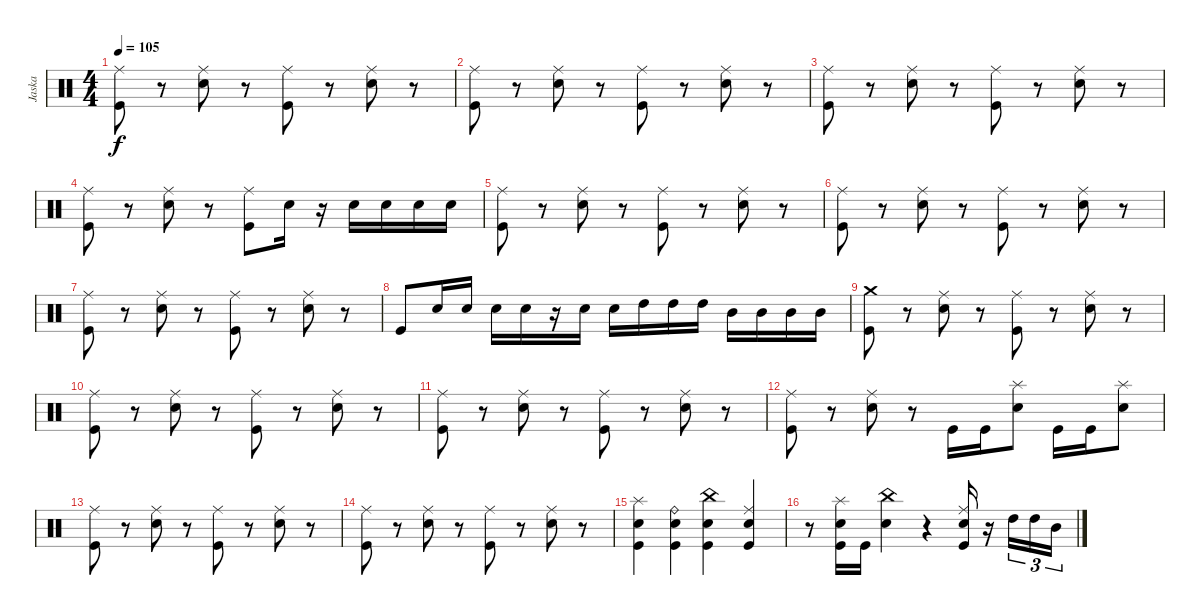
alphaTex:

\track ("Jaska" "Jaska") {instrument percussion}
\staff {score}
\articulation defaults
\ts (4 4)
\tempo 105
\clef neutral
\ks c
("Kick (hit)" "Ride (middle)").8{dy f} r.8 ("Snare (hit) 2" "Ride (middle)").8 r.8 ("Kick (hit)" "Ride (middle)").8 r.8 ("Snare (hit) 2" "Ride (middle)").8 r.8 |
("Kick (hit)" "Ride (middle)").8 r.8 ("Snare (hit) 2" "Ride (middle)").8 r.8 ("Kick (hit)" "Ride (middle)").8 r.8 ("Snare (hit) 2" "Ride (middle)").8 r.8 |
("Kick (hit)" "Ride (middle)").8 r.8 ("Snare (hit) 2" "Ride (middle)").8 r.8 ("Kick (hit)" "Ride (middle)").8 r.8 ("Snare (hit) 2" "Ride (middle)").8 r.8 |
("Kick (hit)" "Ride (middle)").8 r.8 ("Snare (hit) 2" "Ride (middle)").8 r.8 ("Kick (hit)" "Ride (middle)").8 "Snare (hit) 2".16 r.16 "Snare (hit) 2".16 "Snare (hit) 2".16 "Snare (hit) 2".16 "Snare (hit) 2".16 |
("Kick (hit)" "Ride (middle)").8 r.8 ("Snare (hit) 2" "Ride (middle)").8 r.8 ("Kick (hit)" "Ride (middle)").8 r.8 ("Snare (hit) 2" "Ride (middle)").8 r.8 |
("Kick (hit)" "Ride (middle)").8 r.8 ("Snare (hit) 2" "Ride (middle)").8 r.8 ("Kick (hit)" "Ride (middle)").8 r.8 ("Snare (hit) 2" "Ride (middle)").8 r.8 |
("Kick (hit)" "Ride (middle)").8 r.8 ("Snare (hit) 2" "Ride (middle)").8 r.8 ("Kick (hit)" "Ride (middle)").8 r.8 ("Snare (hit) 2" "Ride (middle)").8 r.8 |
"Kick (hit)".8 "Snare (hit) 2".16 "Snare (hit) 2".16 "Snare (hit) 2".16 "Snare (hit) 2".16 r.16 "Snare (hit) 2".16 "Snare (hit) 2".16 "High Tom (hit)".16 "High Tom (hit)".16 "High Tom (hit)".16 "Mid Tom (hit)".16 "Mid Tom (hit)".16 "Mid Tom (hit)".16 "Mid Tom (hit)".16 |
("Kick (hit)" "Crash medium (hit)").8 r.8 ("Snare (hit) 2" "Ride (middle)").8 r.8 ("Kick (hit)" "Ride (middle)").8 r.8 ("Snare (hit) 2" "Ride (middle)").8 r.8 |
("Kick (hit)" "Ride (middle)").8 r.8 ("Snare (hit) 2" "Ride (middle)").8 r.8 ("Kick (hit)" "Ride (middle)").8 r.8 ("Snare (hit) 2" "Ride (middle)").8 r.8 |
("Kick (hit)" "Ride (middle)").8 r.8 ("Snare (hit) 2" "Ride (middle)").8 r.8 ("Kick (hit)" "Ride (middle)").8 r.8 ("Snare (hit) 2" "Ride (middle)").8 r.8 |
("Kick (hit)" "Ride (middle)").8 r.8 ("Snare (hit) 2" "Ride (middle)").8 r.8 "Kick (hit)".16 "Kick (hit)".16 ("Snare (hit) 2" "Splash (hit)").8 "Kick (hit)".16 "Kick (hit)".16 ("Snare (hit) 2" "Splash (hit)").8 |
("Kick (hit)" "Ride (middle)").8 r.8 ("Snare (hit) 2" "Ride (middle)").8 r.8 ("Kick (hit)" "Ride (middle)").8 r.8 ("Snare (hit) 2" "Ride (middle)").8 r.8 |
("Kick (hit)" "Ride (middle)").8 r.8 ("Snare (hit) 2" "Ride (middle)").8 r.8 ("Kick (hit)" "Ride (middle)").8 r.8 ("Snare (hit) 2" "Ride (middle)").8 r.8 |
("Kick (hit)" "Snare (hit) 2" "Splash (hit)").4 ("Kick (hit)" "Snare (hit) 2" "Ride (bell)").4 ("Kick (hit)" "Snare (hit) 2" "China (hit)").4 ("Kick (hit)" "Snare (hit) 2" "Ride (middle)").4 |
r.8 ("Snare (hit) 2" "Kick (hit)" "Splash (hit)").16 "Kick (hit)".16 ("Snare (hit) 2" "China (hit)").4 r.4 ("Kick (hit)" "Snare (hit) 2" "Ride (middle)").16 r.16 "High Tom (hit)".16{tu (3 2)} "High Tom (hit)".16{tu (3 2)} "Mid Tom (hit)".16{tu (3 2)}
